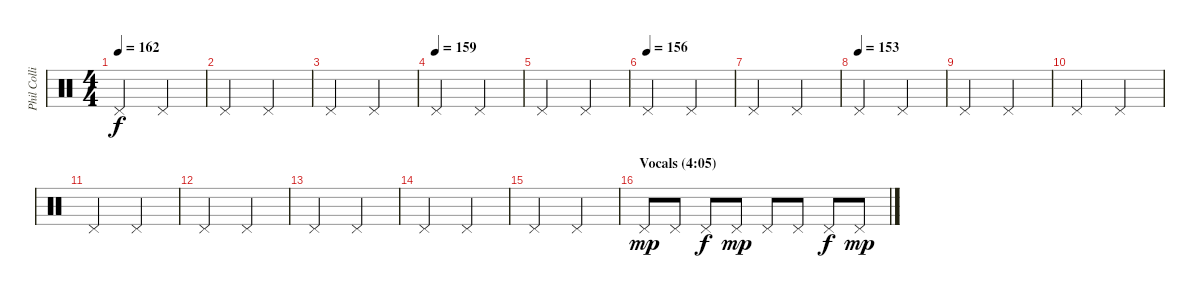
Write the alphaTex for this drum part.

\track ("Phil Collins (drums)" "Phil Colli") {instrument percussion}
\staff {score}
\articulation defaults
\ts (4 4)
\tempo 162
\clef neutral
\ks c "Pedal Hi-Hat (hit)".2{dy f} "Pedal Hi-Hat (hit)".2
|
"Pedal Hi-Hat (hit)".2 "Pedal Hi-Hat (hit)".2 |
"Pedal Hi-Hat (hit)".2 "Pedal Hi-Hat (hit)".2 |
\tempo (159)
"Pedal Hi-Hat (hit)".2 "Pedal Hi-Hat (hit)".2 |
"Pedal Hi-Hat (hit)".2 "Pedal Hi-Hat (hit)".2 |
\tempo (156)
"Pedal Hi-Hat (hit)".2 "Pedal Hi-Hat (hit)".2 |
"Pedal Hi-Hat (hit)".2 "Pedal Hi-Hat (hit)".2 |
\tempo (153)
"Pedal Hi-Hat (hit)".2 "Pedal Hi-Hat (hit)".2 |
"Pedal Hi-Hat (hit)".2 "Pedal Hi-Hat (hit)".2 |
"Pedal Hi-Hat (hit)".2 "Pedal Hi-Hat (hit)".2 |
"Pedal Hi-Hat (hit)".2 "Pedal Hi-Hat (hit)".2 |
"Pedal Hi-Hat (hit)".2 "Pedal Hi-Hat (hit)".2 |
"Pedal Hi-Hat (hit)".2 "Pedal Hi-Hat (hit)".2 |
"Pedal Hi-Hat (hit)".2 "Pedal Hi-Hat (hit)".2 |
"Pedal Hi-Hat (hit)".2 "Pedal Hi-Hat (hit)".2 |
\section ("" "Vocals (4:05)")
"Pedal Hi-Hat (hit)".8{dy mp} "Pedal Hi-Hat (hit)".8 "Pedal Hi-Hat (hit)".8{dy f} "Pedal Hi-Hat (hit)".8{dy mp} "Pedal Hi-Hat (hit)".8 "Pedal Hi-Hat (hit)".8 "Pedal Hi-Hat (hit)".8{dy f} "Pedal Hi-Hat (hit)".8{dy mp}
